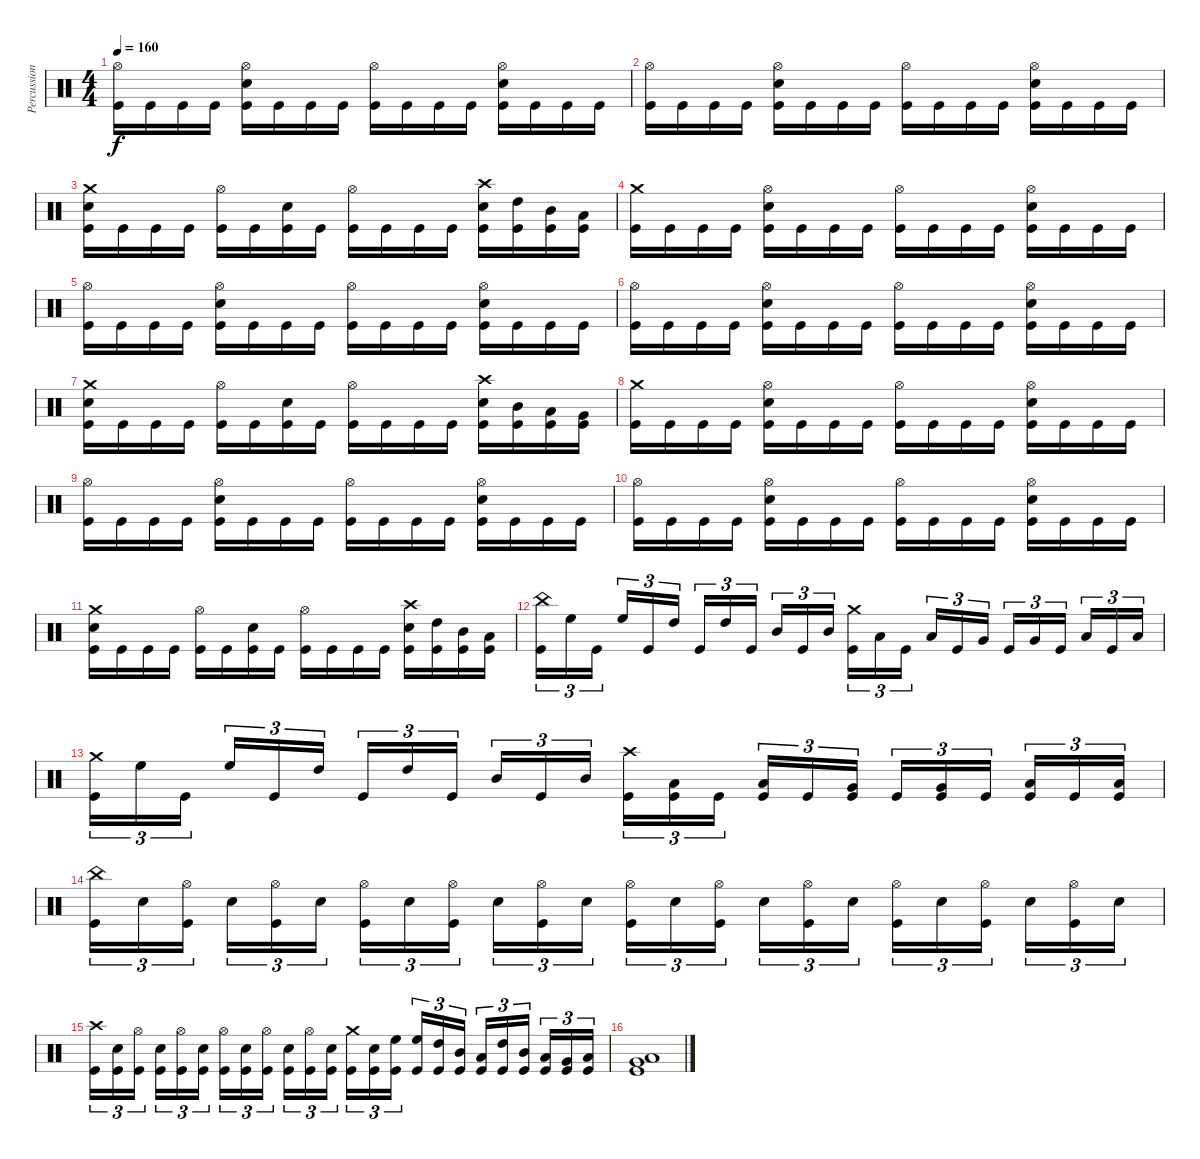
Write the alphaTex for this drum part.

\track ("Percussion" "Percussion") {instrument percussion}
\staff {score}
\articulation defaults
\ts (4 4)
\tempo 160
\clef neutral
\ks c
("Hi-Hat (open)" "Kick (hit)").16{dy f} "Kick (hit)".16 "Kick (hit)".16 "Kick (hit)".16 ("Hi-Hat (open)" "Snare (hit) 2" "Kick (hit)").16 "Kick (hit)".16 "Kick (hit)".16 "Kick (hit)".16 ("Hi-Hat (open)" "Kick (hit)").16 "Kick (hit)".16 "Kick (hit)".16 "Kick (hit)".16 ("Hi-Hat (open)" "Snare (hit) 2" "Kick (hit)").16 "Kick (hit)".16 "Kick (hit)".16 "Kick (hit)".16 |
("Hi-Hat (open)" "Kick (hit)").16 "Kick (hit)".16 "Kick (hit)".16 "Kick (hit)".16 ("Hi-Hat (open)" "Snare (hit) 2" "Kick (hit)").16 "Kick (hit)".16 "Kick (hit)".16 "Kick (hit)".16 ("Hi-Hat (open)" "Kick (hit)").16 "Kick (hit)".16 "Kick (hit)".16 "Kick (hit)".16 ("Hi-Hat (open)" "Snare (hit) 2" "Kick (hit)").16 "Kick (hit)".16 "Kick (hit)".16 "Kick (hit)".16 |
("Crash medium (hit)" "Snare (hit) 2" "Kick (hit)").16 "Kick (hit)".16 "Kick (hit)".16 "Kick (hit)".16 ("Hi-Hat (open)" "Kick (hit)").16 "Kick (hit)".16 ("Snare (hit) 2" "Kick (hit)").16 "Kick (hit)".16 ("Hi-Hat (open)" "Kick (hit)").16 "Kick (hit)".16 "Kick (hit)".16 "Kick (hit)".16 ("Crash high (hit)" "Snare (hit) 2" "Kick (hit)").16 ("High Tom (hit)" "Kick (hit)").16 ("Mid Tom (hit)" "Kick (hit)").16 ("Low Tom (hit)" "Kick (hit)").16 |
("Crash medium (hit)" "Kick (hit)").16 "Kick (hit)".16 "Kick (hit)".16 "Kick (hit)".16 ("Hi-Hat (open)" "Snare (hit) 2" "Kick (hit)").16 "Kick (hit)".16 "Kick (hit)".16 "Kick (hit)".16 ("Hi-Hat (open)" "Kick (hit)").16 "Kick (hit)".16 "Kick (hit)".16 "Kick (hit)".16 ("Hi-Hat (open)" "Snare (hit) 2" "Kick (hit)").16 "Kick (hit)".16 "Kick (hit)".16 "Kick (hit)".16 |
("Hi-Hat (open)" "Kick (hit)").16 "Kick (hit)".16 "Kick (hit)".16 "Kick (hit)".16 ("Hi-Hat (open)" "Snare (hit) 2" "Kick (hit)").16 "Kick (hit)".16 "Kick (hit)".16 "Kick (hit)".16 ("Hi-Hat (open)" "Kick (hit)").16 "Kick (hit)".16 "Kick (hit)".16 "Kick (hit)".16 ("Hi-Hat (open)" "Snare (hit) 2" "Kick (hit)").16 "Kick (hit)".16 "Kick (hit)".16 "Kick (hit)".16 |
("Hi-Hat (open)" "Kick (hit)").16 "Kick (hit)".16 "Kick (hit)".16 "Kick (hit)".16 ("Hi-Hat (open)" "Snare (hit) 2" "Kick (hit)").16 "Kick (hit)".16 "Kick (hit)".16 "Kick (hit)".16 ("Hi-Hat (open)" "Kick (hit)").16 "Kick (hit)".16 "Kick (hit)".16 "Kick (hit)".16 ("Hi-Hat (open)" "Snare (hit) 2" "Kick (hit)").16 "Kick (hit)".16 "Kick (hit)".16 "Kick (hit)".16 |
("Crash medium (hit)" "Snare (hit) 2" "Kick (hit)").16 "Kick (hit)".16 "Kick (hit)".16 "Kick (hit)".16 ("Hi-Hat (open)" "Kick (hit)").16 "Kick (hit)".16 ("Snare (hit) 2" "Kick (hit)").16 "Kick (hit)".16 ("Hi-Hat (open)" "Kick (hit)").16 "Kick (hit)".16 "Kick (hit)".16 "Kick (hit)".16 ("Crash high (hit)" "Snare (hit) 2" "Kick (hit)").16 ("Mid Tom (hit)" "Kick (hit)").16 ("Low Tom (hit)" "Kick (hit)").16 ("Very Low Tom (hit)" "Kick (hit)").16 |
("Crash medium (hit)" "Kick (hit)").16 "Kick (hit)".16 "Kick (hit)".16 "Kick (hit)".16 ("Hi-Hat (open)" "Snare (hit) 2" "Kick (hit)").16 "Kick (hit)".16 "Kick (hit)".16 "Kick (hit)".16 ("Hi-Hat (open)" "Kick (hit)").16 "Kick (hit)".16 "Kick (hit)".16 "Kick (hit)".16 ("Hi-Hat (open)" "Snare (hit) 2" "Kick (hit)").16 "Kick (hit)".16 "Kick (hit)".16 "Kick (hit)".16 |
("Hi-Hat (open)" "Kick (hit)").16 "Kick (hit)".16 "Kick (hit)".16 "Kick (hit)".16 ("Hi-Hat (open)" "Snare (hit) 2" "Kick (hit)").16 "Kick (hit)".16 "Kick (hit)".16 "Kick (hit)".16 ("Hi-Hat (open)" "Kick (hit)").16 "Kick (hit)".16 "Kick (hit)".16 "Kick (hit)".16 ("Hi-Hat (open)" "Snare (hit) 2" "Kick (hit)").16 "Kick (hit)".16 "Kick (hit)".16 "Kick (hit)".16 |
("Hi-Hat (open)" "Kick (hit)").16 "Kick (hit)".16 "Kick (hit)".16 "Kick (hit)".16 ("Hi-Hat (open)" "Snare (hit) 2" "Kick (hit)").16 "Kick (hit)".16 "Kick (hit)".16 "Kick (hit)".16 ("Hi-Hat (open)" "Kick (hit)").16 "Kick (hit)".16 "Kick (hit)".16 "Kick (hit)".16 ("Hi-Hat (open)" "Snare (hit) 2" "Kick (hit)").16 "Kick (hit)".16 "Kick (hit)".16 "Kick (hit)".16 |
("Crash medium (hit)" "Snare (hit) 2" "Kick (hit)").16 "Kick (hit)".16 "Kick (hit)".16 "Kick (hit)".16 ("Hi-Hat (open)" "Kick (hit)").16 "Kick (hit)".16 ("Snare (hit) 2" "Kick (hit)").16 "Kick (hit)".16 ("Hi-Hat (open)" "Kick (hit)").16 "Kick (hit)".16 "Kick (hit)".16 "Kick (hit)".16 ("Crash high (hit)" "Snare (hit) 2" "Kick (hit)").16 ("High Tom (hit)" "Kick (hit)").16 ("Mid Tom (hit)" "Kick (hit)").16 ("Low Tom (hit)" "Kick (hit)").16 |
("China (hit)" "Kick (hit)").16{tu (3 2)} "High Floor Tom (hit)".16{tu (3 2)} "Kick (hit)".16{tu (3 2) beam splitsecondary} "High Floor Tom (hit)".16{tu (3 2)} "Kick (hit)".16{tu (3 2)} "High Tom (hit)".16{tu (3 2)} "Kick (hit)".16{tu (3 2)} "High Tom (hit)".16{tu (3 2)} "Kick (hit)".16{tu (3 2) beam splitsecondary} "Mid Tom (hit)".16{tu (3 2)} "Kick (hit)".16{tu (3 2)} "Mid Tom (hit)".16{tu (3 2)} ("Crash medium (hit)" "Kick (hit)").16{tu (3 2)} "Low Tom (hit)".16{tu (3 2)} "Kick (hit)".16{tu (3 2) beam splitsecondary} "Low Tom (hit)".16{tu (3 2)} "Kick (hit)".16{tu (3 2)} "Very Low Tom (hit)".16{tu (3 2)} "Kick (hit)".16{tu (3 2)} "Very Low Tom (hit)".16{tu (3 2)} "Kick (hit)".16{tu (3 2) beam splitsecondary} "Low Floor Tom (hit)".16{tu (3 2)} "Kick (hit)".16{tu (3 2)} "Low Floor Tom (hit)".16{tu (3 2)} |
("Crash medium (hit)" "Kick (hit)").16{tu (3 2)} "High Floor Tom (hit)".16{tu (3 2)} "Kick (hit)".16{tu (3 2) beam splitsecondary} "High Floor Tom (hit)".16{tu (3 2)} "Kick (hit)".16{tu (3 2)} "High Tom (hit)".16{tu (3 2)} "Kick (hit)".16{tu (3 2)} "High Tom (hit)".16{tu (3 2)} "Kick (hit)".16{tu (3 2) beam splitsecondary} "Mid Tom (hit)".16{tu (3 2)} "Kick (hit)".16{tu (3 2)} "Mid Tom (hit)".16{tu (3 2)} ("Crash high (hit)" "Kick (hit)").16{tu (3 2)} ("Low Tom (hit)" "Kick (hit)").16{tu (3 2)} "Kick (hit)".16{tu (3 2) beam splitsecondary} ("Low Tom (hit)" "Kick (hit)").16{tu (3 2)} "Kick (hit)".16{tu (3 2)} ("Very Low Tom (hit)" "Kick (hit)").16{tu (3 2)} "Kick (hit)".16{tu (3 2)} ("Very Low Tom (hit)" "Kick (hit)").16{tu (3 2)} "Kick (hit)".16{tu (3 2) beam splitsecondary} ("Low Floor Tom (hit)" "Kick (hit)").16{tu (3 2)} "Kick (hit)".16{tu (3 2)} ("Low Floor Tom (hit)" "Kick (hit)").16{tu (3 2)} |
("China (hit)" "Kick (hit)").16{tu (3 2)} "Snare (hit) 2".16{tu (3 2)} ("Hi-Hat (open)" "Kick (hit)").16{tu (3 2) beam splitsecondary} "Snare (hit) 2".16{tu (3 2)} ("Hi-Hat (open)" "Kick (hit)").16{tu (3 2)} "Snare (hit) 2".16{tu (3 2)} ("Hi-Hat (open)" "Kick (hit)").16{tu (3 2)} "Snare (hit) 2".16{tu (3 2)} ("Hi-Hat (open)" "Kick (hit)").16{tu (3 2) beam splitsecondary} "Snare (hit) 2".16{tu (3 2)} ("Hi-Hat (open)" "Kick (hit)").16{tu (3 2)} "Snare (hit) 2".16{tu (3 2)} ("Hi-Hat (open)" "Kick (hit)").16{tu (3 2)} "Snare (hit) 2".16{tu (3 2)} ("Hi-Hat (open)" "Kick (hit)").16{tu (3 2) beam splitsecondary} "Snare (hit) 2".16{tu (3 2)} ("Hi-Hat (open)" "Kick (hit)").16{tu (3 2)} "Snare (hit) 2".16{tu (3 2)} ("Hi-Hat (open)" "Kick (hit)").16{tu (3 2)} "Snare (hit) 2".16{tu (3 2)} ("Hi-Hat (open)" "Kick (hit)").16{tu (3 2) beam splitsecondary} "Snare (hit) 2".16{tu (3 2)} ("Hi-Hat (open)" "Kick (hit)").16{tu (3 2)} "Snare (hit) 2".16{tu (3 2)} |
("Crash high (hit)" "Kick (hit)").16{tu (3 2)} ("Snare (hit) 2" "Kick (hit)").16{tu (3 2)} ("Hi-Hat (open)" "Kick (hit)").16{tu (3 2) beam splitsecondary} ("Snare (hit) 2" "Kick (hit)").16{tu (3 2)} ("Hi-Hat (open)" "Kick (hit)").16{tu (3 2)} ("Snare (hit) 2" "Kick (hit)").16{tu (3 2)} ("Hi-Hat (open)" "Kick (hit)").16{tu (3 2)} ("Snare (hit) 2" "Kick (hit)").16{tu (3 2)} ("Hi-Hat (open)" "Kick (hit)").16{tu (3 2) beam splitsecondary} ("Snare (hit) 2" "Kick (hit)").16{tu (3 2)} ("Hi-Hat (open)" "Kick (hit)").16{tu (3 2)} ("Snare (hit) 2" "Kick (hit)").16{tu (3 2)} ("Crash medium (hit)" "Kick (hit)").16{tu (3 2)} ("Snare (hit) 2" "Kick (hit)").16{tu (3 2)} ("High Floor Tom (hit)" "Kick (hit)").16{tu (3 2) beam splitsecondary} ("High Floor Tom (hit)" "Kick (hit)").16{tu (3 2)} ("High Tom (hit)" "Kick (hit)").16{tu (3 2)} ("Mid Tom (hit)" "Kick (hit)").16{tu (3 2)} ("Low Tom (hit)" "Kick (hit)").16{tu (3 2)} ("High Tom (hit)" "Kick (hit)").16{tu (3 2)} ("Mid Tom (hit)" "Kick (hit)").16{tu (3 2) beam splitsecondary} ("Low Tom (hit)" "Kick (hit)").16{tu (3 2)} ("Very Low Tom (hit)" "Kick (hit)").16{tu (3 2)} ("Low Floor Tom (hit)" "Kick (hit)").16{tu (3 2)} |
("Low Floor Tom (hit)" "Very Low Tom (hit)" "Kick (hit)").1
